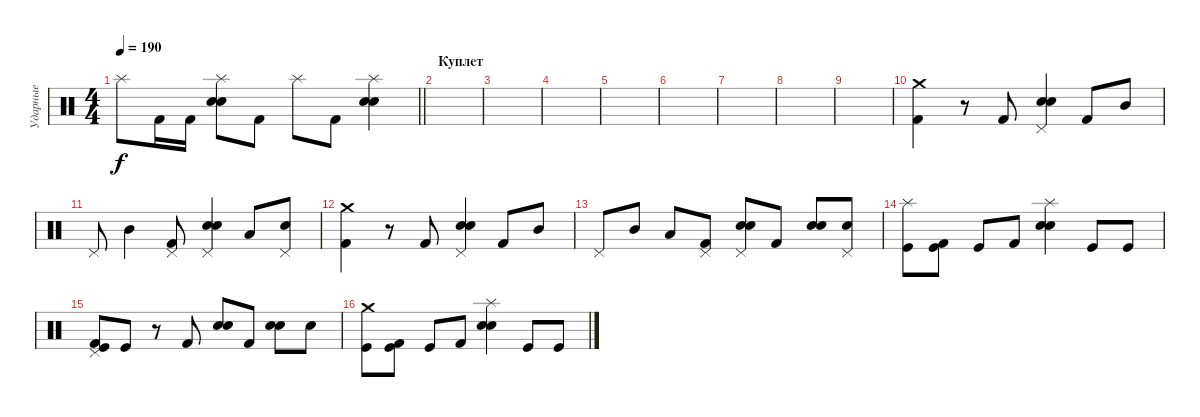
\track ("Ударные" "Ударные") {instrument percussion}
\staff {score}
\articulation defaults
\ts (4 4)
\tempo 190
\clef neutral
\barLineRight lightlight
\ks c "Splash (hit)".8{dy f} "Kick (hit) 2".16 "Kick (hit) 2".16
("Splash (hit)" "Electric Snare (hit)" "Snare (hit) 2").8 "Kick (hit) 2".8 "Splash (hit)".8 "Kick (hit) 2".8 ("Splash (hit)" "Electric Snare (hit)" "Snare (hit) 2").4 |
\section ("" "Куплет")
|
|
|
|
|
|
|
|
("Crash medium (hit)" "Kick (hit) 2").4 r.8 "Kick (hit) 2".8 ("Pedal Hi-Hat (hit)" "Electric Snare (hit)" "Snare (hit) 2").4 "Kick (hit) 2".8 "Mid Tom (hit)".8 |
"Pedal Hi-Hat (hit)".8 "Mid Tom (hit)".4 ("Pedal Hi-Hat (hit)" "Kick (hit) 2").8 ("Pedal Hi-Hat (hit)" "Electric Snare (hit)" "Snare (hit) 2").4 "Low Tom (hit)".8 ("Pedal Hi-Hat (hit)" "Electric Snare (hit)").8 |
("Crash medium (hit)" "Kick (hit) 2").4 r.8 "Kick (hit) 2".8 ("Pedal Hi-Hat (hit)" "Electric Snare (hit)" "Snare (hit) 2").4 "Kick (hit) 2".8 "Mid Tom (hit)".8 |
"Pedal Hi-Hat (hit)".8 "Mid Tom (hit)".8 "Low Tom (hit)".8 ("Pedal Hi-Hat (hit)" "Kick (hit) 2").8 ("Pedal Hi-Hat (hit)" "Electric Snare (hit)" "Snare (hit) 2").8 "Kick (hit) 2".8 ("Electric Snare (hit)" "Snare (hit) 2").8 ("Pedal Hi-Hat (hit)" "Electric Snare (hit)").8 |
("Splash (hit)" "Kick (hit)").8 ("Kick (hit) 2" "Kick (hit)").8 "Kick (hit)".8 "Kick (hit) 2".8 ("Splash (hit)" "Electric Snare (hit)" "Snare (hit) 2").4 "Kick (hit)".8 "Kick (hit)".8 |
("Pedal Hi-Hat (hit)" "Kick (hit) 2" "Kick (hit)").8 "Kick (hit)".8 r.8 "Kick (hit) 2".8 ("Electric Snare (hit)" "Snare (hit) 2").8 "Kick (hit) 2".8 ("Electric Snare (hit)" "Snare (hit) 2").8 "Electric Snare (hit)".8 |
("Crash medium (hit)" "Kick (hit)").8 ("Kick (hit) 2" "Kick (hit)").8 "Kick (hit)".8 "Kick (hit) 2".8 ("Splash (hit)" "Electric Snare (hit)" "Snare (hit) 2").4 "Kick (hit)".8 "Kick (hit)".8
